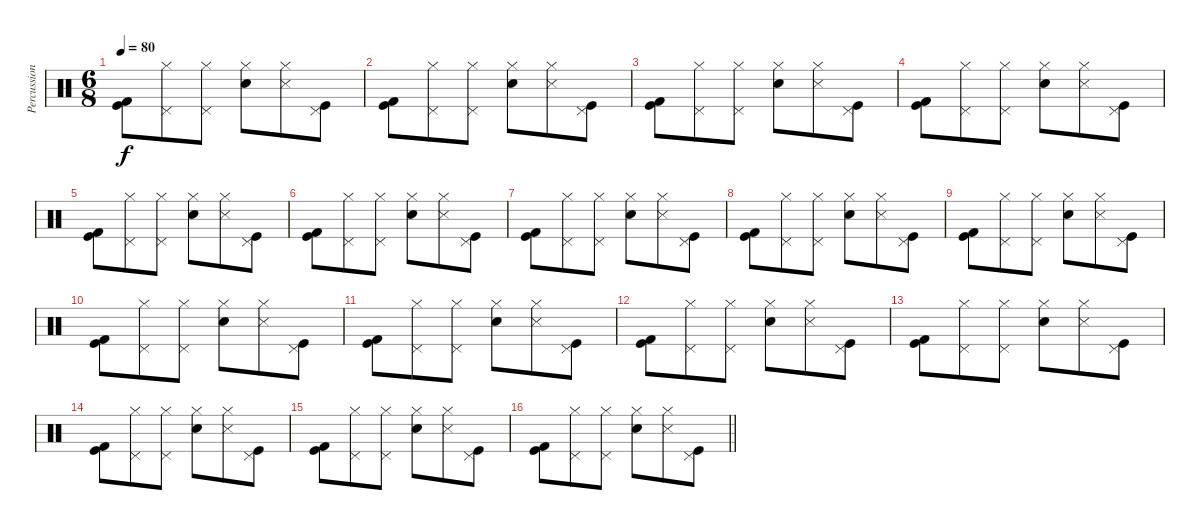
\track ("Percussion" "Percussion") {instrument percussion}
\staff {score}
\articulation defaults
\ts (6 8)
\tempo 80
\clef neutral
\ks c
("Kick (hit)" "Kick (hit) 2").8{dy f} ("Hi-Hat (closed)" "Pedal Hi-Hat (hit)").8 ("Hi-Hat (closed)" "Pedal Hi-Hat (hit)").8 ("Hi-Hat (closed)" "Snare (hit) 2").8 ("Hi-Hat (closed)" "Snare (side stick) 3").8 ("Kick (hit)" "Pedal Hi-Hat (hit)").8 |
("Kick (hit)" "Kick (hit) 2").8 ("Hi-Hat (closed)" "Pedal Hi-Hat (hit)").8 ("Hi-Hat (closed)" "Pedal Hi-Hat (hit)").8 ("Hi-Hat (closed)" "Snare (hit) 2").8 ("Hi-Hat (closed)" "Snare (side stick) 3").8 ("Kick (hit)" "Pedal Hi-Hat (hit)").8 |
("Kick (hit)" "Kick (hit) 2").8 ("Hi-Hat (closed)" "Pedal Hi-Hat (hit)").8 ("Hi-Hat (closed)" "Pedal Hi-Hat (hit)").8 ("Hi-Hat (closed)" "Snare (hit) 2").8 ("Hi-Hat (closed)" "Snare (side stick) 3").8 ("Kick (hit)" "Pedal Hi-Hat (hit)").8 |
("Kick (hit)" "Kick (hit) 2").8 ("Hi-Hat (closed)" "Pedal Hi-Hat (hit)").8 ("Hi-Hat (closed)" "Pedal Hi-Hat (hit)").8 ("Hi-Hat (closed)" "Snare (hit) 2").8 ("Hi-Hat (closed)" "Snare (side stick) 3").8 ("Kick (hit)" "Pedal Hi-Hat (hit)").8 |
("Kick (hit)" "Kick (hit) 2").8 ("Hi-Hat (closed)" "Pedal Hi-Hat (hit)").8 ("Hi-Hat (closed)" "Pedal Hi-Hat (hit)").8 ("Hi-Hat (closed)" "Snare (hit) 2").8 ("Hi-Hat (closed)" "Snare (side stick) 3").8 ("Kick (hit)" "Pedal Hi-Hat (hit)").8 |
("Kick (hit)" "Kick (hit) 2").8 ("Hi-Hat (closed)" "Pedal Hi-Hat (hit)").8 ("Hi-Hat (closed)" "Pedal Hi-Hat (hit)").8 ("Hi-Hat (closed)" "Snare (hit) 2").8 ("Hi-Hat (closed)" "Snare (side stick) 3").8 ("Kick (hit)" "Pedal Hi-Hat (hit)").8 |
("Kick (hit)" "Kick (hit) 2").8 ("Hi-Hat (closed)" "Pedal Hi-Hat (hit)").8 ("Hi-Hat (closed)" "Pedal Hi-Hat (hit)").8 ("Hi-Hat (closed)" "Snare (hit) 2").8 ("Hi-Hat (closed)" "Snare (side stick) 3").8 ("Kick (hit)" "Pedal Hi-Hat (hit)").8 |
("Kick (hit)" "Kick (hit) 2").8 ("Hi-Hat (closed)" "Pedal Hi-Hat (hit)").8 ("Hi-Hat (closed)" "Pedal Hi-Hat (hit)").8 ("Hi-Hat (closed)" "Snare (hit) 2").8 ("Hi-Hat (closed)" "Snare (side stick) 3").8 ("Kick (hit)" "Pedal Hi-Hat (hit)").8 |
("Kick (hit)" "Kick (hit) 2").8 ("Hi-Hat (closed)" "Pedal Hi-Hat (hit)").8 ("Hi-Hat (closed)" "Pedal Hi-Hat (hit)").8 ("Hi-Hat (closed)" "Snare (hit) 2").8 ("Hi-Hat (closed)" "Snare (side stick) 3").8 ("Kick (hit)" "Pedal Hi-Hat (hit)").8 |
("Kick (hit)" "Kick (hit) 2").8 ("Hi-Hat (closed)" "Pedal Hi-Hat (hit)").8 ("Hi-Hat (closed)" "Pedal Hi-Hat (hit)").8 ("Hi-Hat (closed)" "Snare (hit) 2").8 ("Hi-Hat (closed)" "Snare (side stick) 3").8 ("Kick (hit)" "Pedal Hi-Hat (hit)").8 |
("Kick (hit)" "Kick (hit) 2").8 ("Hi-Hat (closed)" "Pedal Hi-Hat (hit)").8 ("Hi-Hat (closed)" "Pedal Hi-Hat (hit)").8 ("Hi-Hat (closed)" "Snare (hit) 2").8 ("Hi-Hat (closed)" "Snare (side stick) 3").8 ("Kick (hit)" "Pedal Hi-Hat (hit)").8 |
("Kick (hit)" "Kick (hit) 2").8 ("Hi-Hat (closed)" "Pedal Hi-Hat (hit)").8 ("Hi-Hat (closed)" "Pedal Hi-Hat (hit)").8 ("Hi-Hat (closed)" "Snare (hit) 2").8 ("Hi-Hat (closed)" "Snare (side stick) 3").8 ("Kick (hit)" "Pedal Hi-Hat (hit)").8 |
("Kick (hit)" "Kick (hit) 2").8 ("Hi-Hat (closed)" "Pedal Hi-Hat (hit)").8 ("Hi-Hat (closed)" "Pedal Hi-Hat (hit)").8 ("Hi-Hat (closed)" "Snare (hit) 2").8 ("Hi-Hat (closed)" "Snare (side stick) 3").8 ("Kick (hit)" "Pedal Hi-Hat (hit)").8 |
("Kick (hit)" "Kick (hit) 2").8 ("Hi-Hat (closed)" "Pedal Hi-Hat (hit)").8 ("Hi-Hat (closed)" "Pedal Hi-Hat (hit)").8 ("Hi-Hat (closed)" "Snare (hit) 2").8 ("Hi-Hat (closed)" "Snare (side stick) 3").8 ("Kick (hit)" "Pedal Hi-Hat (hit)").8 |
("Kick (hit)" "Kick (hit) 2").8 ("Hi-Hat (closed)" "Pedal Hi-Hat (hit)").8 ("Hi-Hat (closed)" "Pedal Hi-Hat (hit)").8 ("Hi-Hat (closed)" "Snare (hit) 2").8 ("Hi-Hat (closed)" "Snare (side stick) 3").8 ("Kick (hit)" "Pedal Hi-Hat (hit)").8 |
\barLineRight lightlight
("Kick (hit)" "Kick (hit) 2").8 ("Hi-Hat (closed)" "Pedal Hi-Hat (hit)").8 ("Hi-Hat (closed)" "Pedal Hi-Hat (hit)").8 ("Hi-Hat (closed)" "Snare (hit) 2").8 ("Hi-Hat (closed)" "Snare (side stick) 3").8 ("Kick (hit)" "Pedal Hi-Hat (hit)").8
